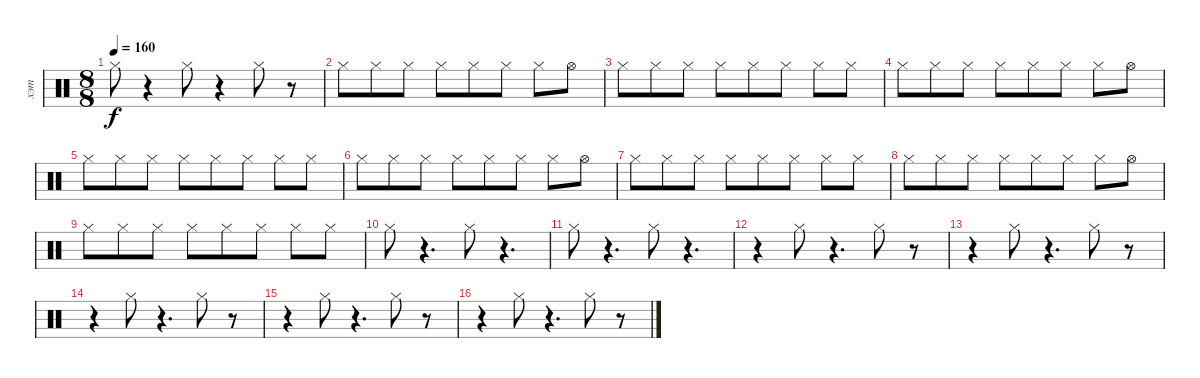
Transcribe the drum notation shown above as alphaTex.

\track ("хэт" "хэт") {instrument percussion}
\staff {score}
\articulation defaults
\ts (8 8)
\tempo 160
\clef neutral
\ks c "Hi-Hat (closed)".8{dy f}
r.4 "Hi-Hat (closed)".8 r.4 "Hi-Hat (closed)".8 r.8 |
"Hi-Hat (closed)".8 "Hi-Hat (closed)".8 "Hi-Hat (closed)".8 "Hi-Hat (closed)".8 "Hi-Hat (closed)".8 "Hi-Hat (closed)".8 "Hi-Hat (closed)".8 "Hi-Hat (open)".8 |
"Hi-Hat (closed)".8 "Hi-Hat (closed)".8 "Hi-Hat (closed)".8 "Hi-Hat (closed)".8 "Hi-Hat (closed)".8 "Hi-Hat (closed)".8 "Hi-Hat (closed)".8 "Hi-Hat (closed)".8 |
"Hi-Hat (closed)".8 "Hi-Hat (closed)".8 "Hi-Hat (closed)".8 "Hi-Hat (closed)".8 "Hi-Hat (closed)".8 "Hi-Hat (closed)".8 "Hi-Hat (closed)".8 "Hi-Hat (open)".8 |
"Hi-Hat (closed)".8 "Hi-Hat (closed)".8 "Hi-Hat (closed)".8 "Hi-Hat (closed)".8 "Hi-Hat (closed)".8 "Hi-Hat (closed)".8 "Hi-Hat (closed)".8 "Hi-Hat (closed)".8 |
"Hi-Hat (closed)".8 "Hi-Hat (closed)".8 "Hi-Hat (closed)".8 "Hi-Hat (closed)".8 "Hi-Hat (closed)".8 "Hi-Hat (closed)".8 "Hi-Hat (closed)".8 "Hi-Hat (open)".8 |
"Hi-Hat (closed)".8 "Hi-Hat (closed)".8 "Hi-Hat (closed)".8 "Hi-Hat (closed)".8 "Hi-Hat (closed)".8 "Hi-Hat (closed)".8 "Hi-Hat (closed)".8 "Hi-Hat (closed)".8 |
"Hi-Hat (closed)".8 "Hi-Hat (closed)".8 "Hi-Hat (closed)".8 "Hi-Hat (closed)".8 "Hi-Hat (closed)".8 "Hi-Hat (closed)".8 "Hi-Hat (closed)".8 "Hi-Hat (open)".8 |
"Hi-Hat (closed)".8 "Hi-Hat (closed)".8 "Hi-Hat (closed)".8 "Hi-Hat (closed)".8 "Hi-Hat (closed)".8 "Hi-Hat (closed)".8 "Hi-Hat (closed)".8 "Hi-Hat (closed)".8 |
"Hi-Hat (closed)".8 r.4{d} "Hi-Hat (closed)".8 r.4{d} |
"Hi-Hat (closed)".8 r.4{d} "Hi-Hat (closed)".8 r.4{d} |
r.4 "Hi-Hat (closed)".8 r.4{d} "Hi-Hat (closed)".8 r.8 |
r.4 "Hi-Hat (closed)".8 r.4{d} "Hi-Hat (closed)".8 r.8 |
r.4 "Hi-Hat (closed)".8 r.4{d} "Hi-Hat (closed)".8 r.8 |
r.4 "Hi-Hat (closed)".8 r.4{d} "Hi-Hat (closed)".8 r.8 |
r.4 "Hi-Hat (closed)".8 r.4{d} "Hi-Hat (closed)".8 r.8
